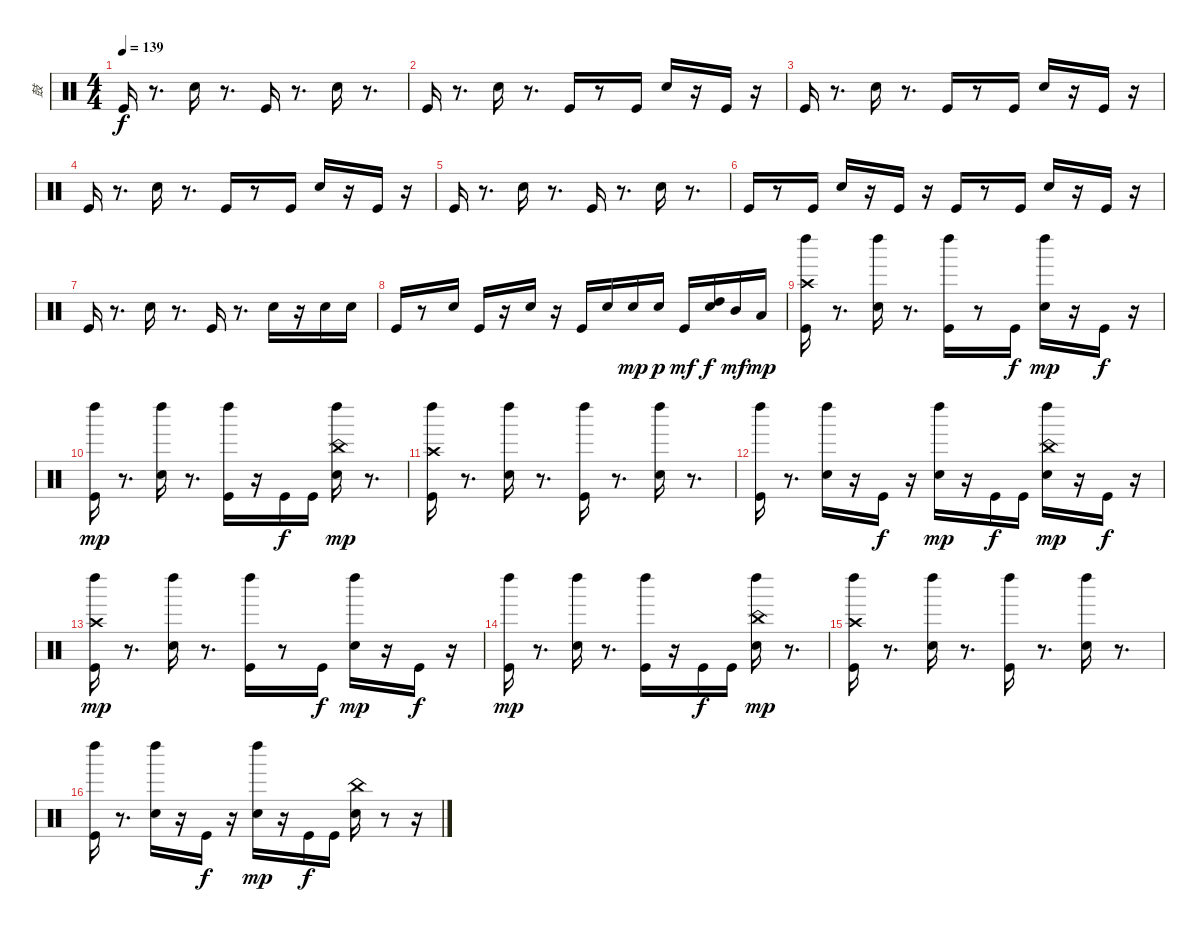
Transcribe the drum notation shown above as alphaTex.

\track ("鼓" "鼓") {instrument percussion}
\staff {score}
\articulation defaults
\ts (4 4)
\tempo 139
\clef neutral
\ks c "Kick (hit)".16{dy f}
r.8{d} "Electric Snare (hit)".16{balance 10} r.8{d} "Kick (hit)".16{balance 8} r.8{d} "Electric Snare (hit)".16{balance 10} r.8{d} |
"Kick (hit)".16{balance 8} r.8{d} "Electric Snare (hit)".16{balance 10} r.8{d} "Kick (hit)".16{balance 8} r.8 "Kick (hit)".16 "Electric Snare (hit)".16{balance 10} r.16 "Kick (hit)".16{balance 8} r.16 |
"Kick (hit)".16 r.8{d} "Electric Snare (hit)".16{balance 10} r.8{d} "Kick (hit)".16{balance 8} r.8 "Kick (hit)".16 "Electric Snare (hit)".16{balance 10} r.16 "Kick (hit)".16{balance 8} r.16 |
"Kick (hit)".16 r.8{d} "Electric Snare (hit)".16{balance 10} r.8{d} "Kick (hit)".16{balance 8} r.8 "Kick (hit)".16 "Electric Snare (hit)".16{balance 10} r.16 "Kick (hit)".16{balance 8} r.16 |
"Kick (hit)".16 r.8{d} "Electric Snare (hit)".16{balance 10} r.8{d} "Kick (hit)".16{balance 8} r.8{d} "Electric Snare (hit)".16{balance 10} r.8{d} |
"Kick (hit)".16{balance 8} r.8 "Kick (hit)".16 "Electric Snare (hit)".16{balance 10} r.16 "Kick (hit)".16{balance 8} r.16 "Kick (hit)".16 r.8 "Kick (hit)".16 "Electric Snare (hit)".16{balance 10} r.16 "Kick (hit)".16{balance 8} r.16 |
"Kick (hit)".16 r.8{d} "Electric Snare (hit)".16{balance 10} r.8{d} "Kick (hit)".16{balance 8} r.8{d} "Electric Snare (hit)".16{balance 10} r.16 "Electric Snare (hit)".16{balance 8} "Electric Snare (hit)".16 |
"Kick (hit)".16{balance 10} r.8 "Electric Snare (hit)".16{balance 8} "Kick (hit)".16{balance 10} r.16 "Electric Snare (hit)".16{balance 8} r.16 "Kick (hit)".16{balance 10} "Electric Snare (hit)".16{balance 8} "Electric Snare (hit)".16{dy mp} "Electric Snare (hit)".16{dy p} "Kick (hit)".16{dy mf balance 10} ("Electric Snare (hit)" "High Tom (hit)").16{dy f balance 8} "Mid Tom (hit)".16{dy mf balance 12} "Low Tom (hit)".16{dy mp} |
("Kick (hit)" "Crash high (hit)" "Left Maraca (hit)").16{balance 8} r.8{d} ("Left Maraca (hit)" "Electric Snare (hit)").16 r.8{d} ("Left Maraca (hit)" "Kick (hit)").16 r.8 "Kick (hit)".16{dy f} ("Electric Snare (hit)" "Left Maraca (hit)").16{dy mp} r.16 "Kick (hit)".16{dy f} r.16 |
("Kick (hit)" "Left Maraca (hit)").16{dy mp} r.8{d} ("Electric Snare (hit)" "Left Maraca (hit)").16 r.8{d} ("Kick (hit)" "Left Maraca (hit)").16 r.16 "Kick (hit)".16{dy f} "Kick (hit)".16 ("Electric Snare (hit)" "China (hit)" "Left Maraca (hit)").16{dy mp} r.8{d} |
("Kick (hit)" "Left Maraca (hit)" "Crash high (hit)").16 r.8{d} ("Left Maraca (hit)" "Electric Snare (hit)").16 r.8{d} ("Kick (hit)" "Left Maraca (hit)").16 r.8{d} ("Left Maraca (hit)" "Electric Snare (hit)").16 r.8{d} |
("Left Maraca (hit)" "Kick (hit)").16 r.8{d} ("Electric Snare (hit)" "Left Maraca (hit)").16 r.16 "Kick (hit)".16{dy f} r.16 ("Left Maraca (hit)" "Electric Snare (hit)").16{dy mp} r.16 "Kick (hit)".16{dy f} "Kick (hit)".16 ("Left Maraca (hit)" "China (hit)" "Electric Snare (hit)").16{dy mp} r.16 "Kick (hit)".16{dy f} r.16 |
("Left Maraca (hit)" "Kick (hit)" "Crash high (hit)").16{dy mp} r.8{d} ("Left Maraca (hit)" "Electric Snare (hit)").16 r.8{d} ("Left Maraca (hit)" "Kick (hit)").16 r.8 "Kick (hit)".16{dy f} ("Electric Snare (hit)" "Left Maraca (hit)").16{dy mp} r.16 "Kick (hit)".16{dy f} r.16 |
("Kick (hit)" "Left Maraca (hit)").16{dy mp} r.8{d} ("Electric Snare (hit)" "Left Maraca (hit)").16 r.8{d} ("Kick (hit)" "Left Maraca (hit)").16 r.16 "Kick (hit)".16{dy f} "Kick (hit)".16 ("China (hit)" "Left Maraca (hit)" "Electric Snare (hit)").16{dy mp} r.8{d} |
("Kick (hit)" "Crash high (hit)" "Left Maraca (hit)").16 r.8{d} ("Left Maraca (hit)" "Electric Snare (hit)").16 r.8{d} ("Left Maraca (hit)" "Kick (hit)").16 r.8{d} ("Electric Snare (hit)" "Left Maraca (hit)").16 r.8{d} |
("Kick (hit)" "Left Maraca (hit)").16 r.8{d} ("Electric Snare (hit)" "Left Maraca (hit)").16 r.16 "Kick (hit)".16{dy f} r.16 ("Electric Snare (hit)" "Left Maraca (hit)").16{dy mp} r.16 "Kick (hit)".16{dy f} "Kick (hit)".16 ("China (hit)" "Electric Snare (hit)").16 r.8 r.16
